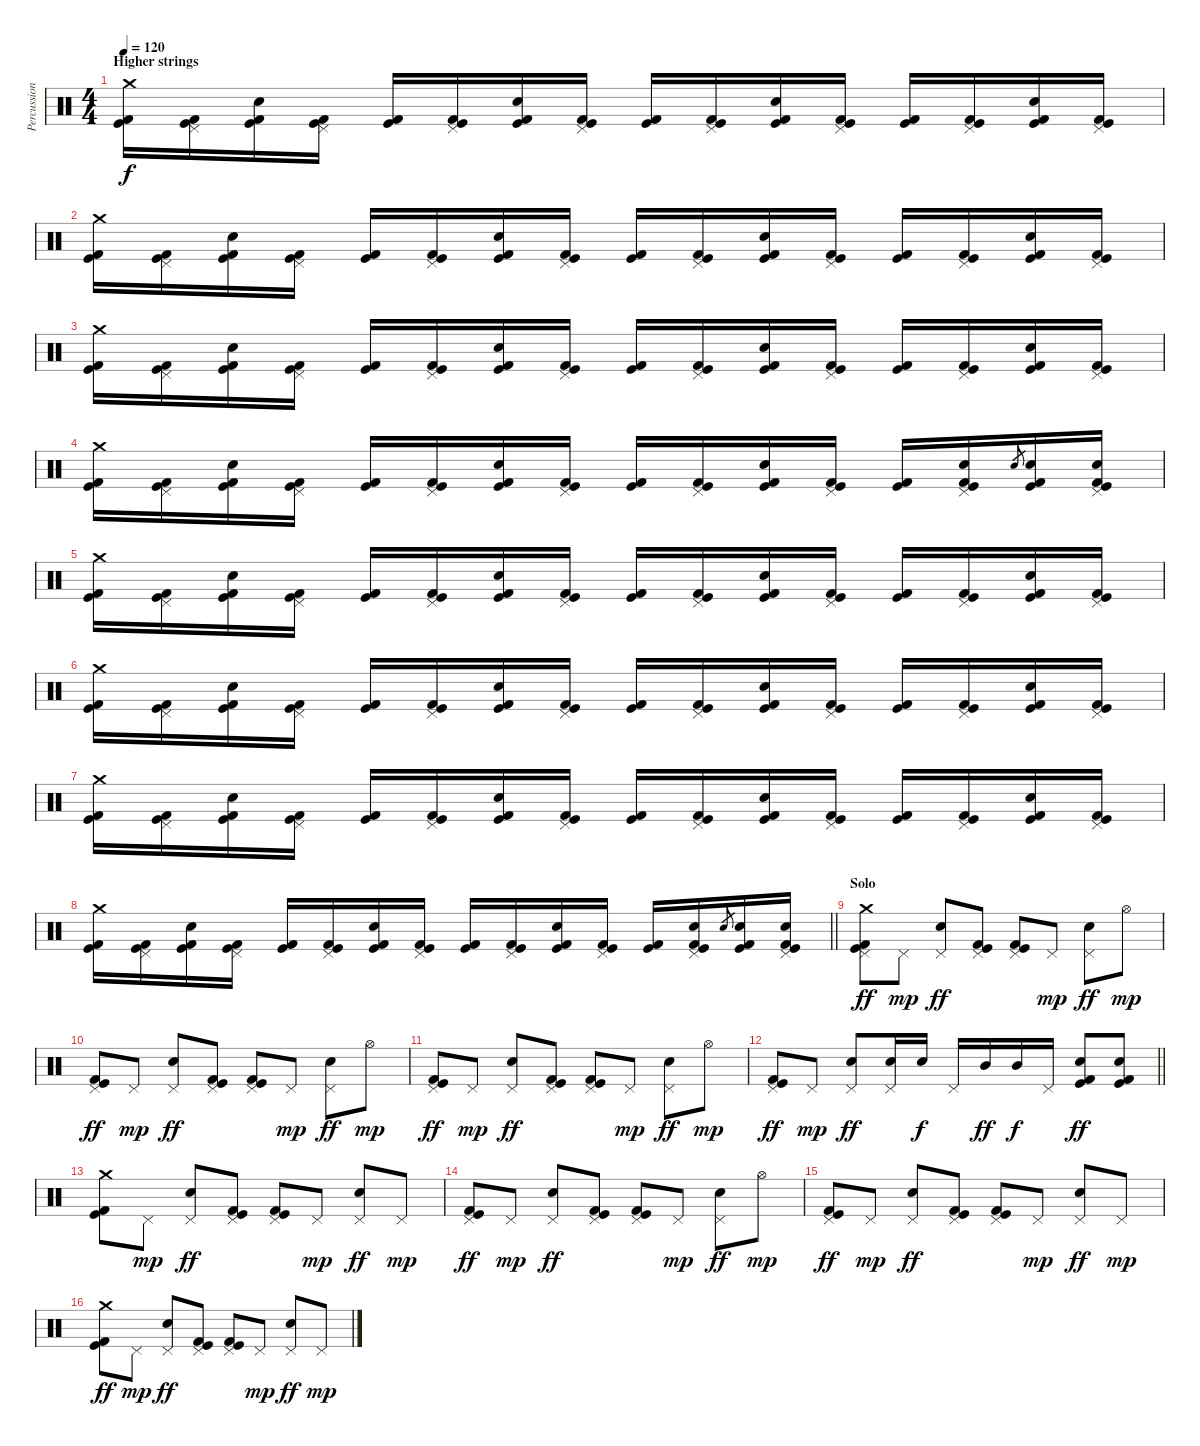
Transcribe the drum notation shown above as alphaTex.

\track ("Percussion" "Percussion") {instrument percussion}
\staff {score}
\articulation defaults
\ts (4 4)
\section ("" "Higher strings")
\tempo 120
\clef neutral
\ks c
("Crash medium (hit)" "Kick (hit)" "Kick (hit) 2").16{dy f} ("Pedal Hi-Hat (hit)" "Kick (hit)" "Kick (hit) 2").16 ("Electric Snare (hit)" "Kick (hit)" "Kick (hit) 2").16 ("Pedal Hi-Hat (hit)" "Kick (hit)" "Kick (hit) 2").16 ("Kick (hit)" "Kick (hit) 2").16 ("Pedal Hi-Hat (hit)" "Kick (hit)" "Kick (hit) 2").16 ("Electric Snare (hit)" "Kick (hit)" "Kick (hit) 2").16 ("Pedal Hi-Hat (hit)" "Kick (hit)" "Kick (hit) 2").16 ("Kick (hit)" "Kick (hit) 2").16 ("Pedal Hi-Hat (hit)" "Kick (hit)" "Kick (hit) 2").16 ("Electric Snare (hit)" "Kick (hit)" "Kick (hit) 2").16 ("Pedal Hi-Hat (hit)" "Kick (hit)" "Kick (hit) 2").16 ("Kick (hit)" "Kick (hit) 2").16 ("Pedal Hi-Hat (hit)" "Kick (hit)" "Kick (hit) 2").16 ("Electric Snare (hit)" "Kick (hit)" "Kick (hit) 2").16 ("Pedal Hi-Hat (hit)" "Kick (hit)" "Kick (hit) 2").16 |
("Crash medium (hit)" "Kick (hit)" "Kick (hit) 2").16 ("Pedal Hi-Hat (hit)" "Kick (hit)" "Kick (hit) 2").16 ("Electric Snare (hit)" "Kick (hit)" "Kick (hit) 2").16 ("Pedal Hi-Hat (hit)" "Kick (hit)" "Kick (hit) 2").16 ("Kick (hit)" "Kick (hit) 2").16 ("Pedal Hi-Hat (hit)" "Kick (hit)" "Kick (hit) 2").16 ("Electric Snare (hit)" "Kick (hit)" "Kick (hit) 2").16 ("Pedal Hi-Hat (hit)" "Kick (hit)" "Kick (hit) 2").16 ("Kick (hit)" "Kick (hit) 2").16 ("Pedal Hi-Hat (hit)" "Kick (hit)" "Kick (hit) 2").16 ("Electric Snare (hit)" "Kick (hit)" "Kick (hit) 2").16 ("Pedal Hi-Hat (hit)" "Kick (hit)" "Kick (hit) 2").16 ("Kick (hit)" "Kick (hit) 2").16 ("Pedal Hi-Hat (hit)" "Kick (hit)" "Kick (hit) 2").16 ("Electric Snare (hit)" "Kick (hit)" "Kick (hit) 2").16 ("Pedal Hi-Hat (hit)" "Kick (hit)" "Kick (hit) 2").16 |
("Crash medium (hit)" "Kick (hit)" "Kick (hit) 2").16 ("Pedal Hi-Hat (hit)" "Kick (hit)" "Kick (hit) 2").16 ("Electric Snare (hit)" "Kick (hit)" "Kick (hit) 2").16 ("Pedal Hi-Hat (hit)" "Kick (hit)" "Kick (hit) 2").16 ("Kick (hit)" "Kick (hit) 2").16 ("Pedal Hi-Hat (hit)" "Kick (hit)" "Kick (hit) 2").16 ("Electric Snare (hit)" "Kick (hit)" "Kick (hit) 2").16 ("Pedal Hi-Hat (hit)" "Kick (hit)" "Kick (hit) 2").16 ("Kick (hit)" "Kick (hit) 2").16 ("Pedal Hi-Hat (hit)" "Kick (hit)" "Kick (hit) 2").16 ("Electric Snare (hit)" "Kick (hit)" "Kick (hit) 2").16 ("Pedal Hi-Hat (hit)" "Kick (hit)" "Kick (hit) 2").16 ("Kick (hit)" "Kick (hit) 2").16 ("Pedal Hi-Hat (hit)" "Kick (hit)" "Kick (hit) 2").16 ("Electric Snare (hit)" "Kick (hit)" "Kick (hit) 2").16 ("Pedal Hi-Hat (hit)" "Kick (hit)" "Kick (hit) 2").16 |
("Crash medium (hit)" "Kick (hit)" "Kick (hit) 2").16 ("Pedal Hi-Hat (hit)" "Kick (hit)" "Kick (hit) 2").16 ("Electric Snare (hit)" "Kick (hit)" "Kick (hit) 2").16 ("Pedal Hi-Hat (hit)" "Kick (hit)" "Kick (hit) 2").16 ("Kick (hit)" "Kick (hit) 2").16 ("Pedal Hi-Hat (hit)" "Kick (hit)" "Kick (hit) 2").16 ("Electric Snare (hit)" "Kick (hit)" "Kick (hit) 2").16 ("Pedal Hi-Hat (hit)" "Kick (hit)" "Kick (hit) 2").16 ("Kick (hit)" "Kick (hit) 2").16 ("Pedal Hi-Hat (hit)" "Kick (hit)" "Kick (hit) 2").16 ("Electric Snare (hit)" "Kick (hit)" "Kick (hit) 2").16 ("Pedal Hi-Hat (hit)" "Kick (hit)" "Kick (hit) 2").16 ("Kick (hit)" "Kick (hit) 2").16 ("Pedal Hi-Hat (hit)" "Electric Snare (hit)" "Kick (hit)" "Kick (hit) 2").16 "Electric Snare (hit)".8{gr} ("Electric Snare (hit)" "Kick (hit)" "Kick (hit) 2").16 ("Pedal Hi-Hat (hit)" "Electric Snare (hit)" "Kick (hit)" "Kick (hit) 2").16 |
("Crash medium (hit)" "Kick (hit)" "Kick (hit) 2").16 ("Pedal Hi-Hat (hit)" "Kick (hit)" "Kick (hit) 2").16 ("Electric Snare (hit)" "Kick (hit)" "Kick (hit) 2").16 ("Pedal Hi-Hat (hit)" "Kick (hit)" "Kick (hit) 2").16 ("Kick (hit)" "Kick (hit) 2").16 ("Pedal Hi-Hat (hit)" "Kick (hit)" "Kick (hit) 2").16 ("Electric Snare (hit)" "Kick (hit)" "Kick (hit) 2").16 ("Pedal Hi-Hat (hit)" "Kick (hit)" "Kick (hit) 2").16 ("Kick (hit)" "Kick (hit) 2").16 ("Pedal Hi-Hat (hit)" "Kick (hit)" "Kick (hit) 2").16 ("Electric Snare (hit)" "Kick (hit)" "Kick (hit) 2").16 ("Pedal Hi-Hat (hit)" "Kick (hit)" "Kick (hit) 2").16 ("Kick (hit)" "Kick (hit) 2").16 ("Pedal Hi-Hat (hit)" "Kick (hit)" "Kick (hit) 2").16 ("Electric Snare (hit)" "Kick (hit)" "Kick (hit) 2").16 ("Pedal Hi-Hat (hit)" "Kick (hit)" "Kick (hit) 2").16 |
("Crash medium (hit)" "Kick (hit)" "Kick (hit) 2").16 ("Pedal Hi-Hat (hit)" "Kick (hit)" "Kick (hit) 2").16 ("Electric Snare (hit)" "Kick (hit)" "Kick (hit) 2").16 ("Pedal Hi-Hat (hit)" "Kick (hit)" "Kick (hit) 2").16 ("Kick (hit)" "Kick (hit) 2").16 ("Pedal Hi-Hat (hit)" "Kick (hit)" "Kick (hit) 2").16 ("Electric Snare (hit)" "Kick (hit)" "Kick (hit) 2").16 ("Pedal Hi-Hat (hit)" "Kick (hit)" "Kick (hit) 2").16 ("Kick (hit)" "Kick (hit) 2").16 ("Pedal Hi-Hat (hit)" "Kick (hit)" "Kick (hit) 2").16 ("Electric Snare (hit)" "Kick (hit)" "Kick (hit) 2").16 ("Pedal Hi-Hat (hit)" "Kick (hit)" "Kick (hit) 2").16 ("Kick (hit)" "Kick (hit) 2").16 ("Pedal Hi-Hat (hit)" "Kick (hit)" "Kick (hit) 2").16 ("Electric Snare (hit)" "Kick (hit)" "Kick (hit) 2").16 ("Pedal Hi-Hat (hit)" "Kick (hit)" "Kick (hit) 2").16 |
("Crash medium (hit)" "Kick (hit)" "Kick (hit) 2").16 ("Pedal Hi-Hat (hit)" "Kick (hit)" "Kick (hit) 2").16 ("Electric Snare (hit)" "Kick (hit)" "Kick (hit) 2").16 ("Pedal Hi-Hat (hit)" "Kick (hit)" "Kick (hit) 2").16 ("Kick (hit)" "Kick (hit) 2").16 ("Pedal Hi-Hat (hit)" "Kick (hit)" "Kick (hit) 2").16 ("Electric Snare (hit)" "Kick (hit)" "Kick (hit) 2").16 ("Pedal Hi-Hat (hit)" "Kick (hit)" "Kick (hit) 2").16 ("Kick (hit)" "Kick (hit) 2").16 ("Pedal Hi-Hat (hit)" "Kick (hit)" "Kick (hit) 2").16 ("Electric Snare (hit)" "Kick (hit)" "Kick (hit) 2").16 ("Pedal Hi-Hat (hit)" "Kick (hit)" "Kick (hit) 2").16 ("Kick (hit)" "Kick (hit) 2").16 ("Pedal Hi-Hat (hit)" "Kick (hit)" "Kick (hit) 2").16 ("Electric Snare (hit)" "Kick (hit)" "Kick (hit) 2").16 ("Pedal Hi-Hat (hit)" "Kick (hit)" "Kick (hit) 2").16 |
\barLineRight lightlight
("Crash medium (hit)" "Kick (hit)" "Kick (hit) 2").16 ("Pedal Hi-Hat (hit)" "Kick (hit)" "Kick (hit) 2").16 ("Electric Snare (hit)" "Kick (hit)" "Kick (hit) 2").16 ("Pedal Hi-Hat (hit)" "Kick (hit)" "Kick (hit) 2").16 ("Kick (hit)" "Kick (hit) 2").16 ("Pedal Hi-Hat (hit)" "Kick (hit)" "Kick (hit) 2").16 ("Electric Snare (hit)" "Kick (hit)" "Kick (hit) 2").16 ("Pedal Hi-Hat (hit)" "Kick (hit)" "Kick (hit) 2").16 ("Kick (hit)" "Kick (hit) 2").16 ("Pedal Hi-Hat (hit)" "Kick (hit)" "Kick (hit) 2").16 ("Electric Snare (hit)" "Kick (hit)" "Kick (hit) 2").16 ("Pedal Hi-Hat (hit)" "Kick (hit)" "Kick (hit) 2").16 ("Kick (hit)" "Kick (hit) 2").16 ("Pedal Hi-Hat (hit)" "Electric Snare (hit)" "Kick (hit)" "Kick (hit) 2").16 "Electric Snare (hit)".8{gr} ("Electric Snare (hit)" "Kick (hit)" "Kick (hit) 2").16 ("Pedal Hi-Hat (hit)" "Electric Snare (hit)" "Kick (hit)" "Kick (hit) 2").16 |
\section ("" "Solo")
("Crash medium (hit)" "Pedal Hi-Hat (hit)" "Kick (hit) 2" "Kick (hit)").8{dy ff} "Pedal Hi-Hat (hit)".8{dy mp} ("Pedal Hi-Hat (hit)" "Electric Snare (hit)").8{dy ff} ("Pedal Hi-Hat (hit)" "Kick (hit) 2" "Kick (hit)").8 ("Pedal Hi-Hat (hit)" "Kick (hit) 2" "Kick (hit)").8 "Pedal Hi-Hat (hit)".8{dy mp} ("Pedal Hi-Hat (hit)" "Electric Snare (hit)").8{dy ff} "Hi-Hat (open)".8{dy mp} |
("Pedal Hi-Hat (hit)" "Kick (hit) 2" "Kick (hit)").8{dy ff} "Pedal Hi-Hat (hit)".8{dy mp} ("Pedal Hi-Hat (hit)" "Electric Snare (hit)").8{dy ff} ("Pedal Hi-Hat (hit)" "Kick (hit) 2" "Kick (hit)").8 ("Pedal Hi-Hat (hit)" "Kick (hit) 2" "Kick (hit)").8 "Pedal Hi-Hat (hit)".8{dy mp} ("Pedal Hi-Hat (hit)" "Electric Snare (hit)").8{dy ff} "Hi-Hat (open)".8{dy mp} |
("Pedal Hi-Hat (hit)" "Kick (hit) 2" "Kick (hit)").8{dy ff} "Pedal Hi-Hat (hit)".8{dy mp} ("Pedal Hi-Hat (hit)" "Electric Snare (hit)").8{dy ff} ("Pedal Hi-Hat (hit)" "Kick (hit) 2" "Kick (hit)").8 ("Pedal Hi-Hat (hit)" "Kick (hit) 2" "Kick (hit)").8 "Pedal Hi-Hat (hit)".8{dy mp} ("Pedal Hi-Hat (hit)" "Electric Snare (hit)").8{dy ff} "Hi-Hat (open)".8{dy mp} |
\barLineRight lightlight
("Pedal Hi-Hat (hit)" "Kick (hit) 2" "Kick (hit)").8{dy ff} "Pedal Hi-Hat (hit)".8{dy mp} ("Pedal Hi-Hat (hit)" "Electric Snare (hit)").8{dy ff} ("Pedal Hi-Hat (hit)" "Electric Snare (hit)").16 "Snare (hit) 2".16{dy f} "Pedal Hi-Hat (hit)".16 "Mid Tom (hit)".16{dy ff} "Mid Tom (hit)".16{dy f} "Pedal Hi-Hat (hit)".16 ("Electric Snare (hit)" "Kick (hit)" "Kick (hit) 2").8{dy ff} ("Electric Snare (hit)" "Kick (hit)" "Kick (hit) 2").8 |
("Crash medium (hit)" "Kick (hit) 2" "Kick (hit)").8 "Pedal Hi-Hat (hit)".8{dy mp} ("Pedal Hi-Hat (hit)" "Electric Snare (hit)").8{dy ff} ("Pedal Hi-Hat (hit)" "Kick (hit) 2" "Kick (hit)").8 ("Pedal Hi-Hat (hit)" "Kick (hit) 2" "Kick (hit)").8 "Pedal Hi-Hat (hit)".8{dy mp} ("Pedal Hi-Hat (hit)" "Electric Snare (hit)").8{dy ff} "Pedal Hi-Hat (hit)".8{dy mp} |
("Pedal Hi-Hat (hit)" "Kick (hit) 2" "Kick (hit)").8{dy ff} "Pedal Hi-Hat (hit)".8{dy mp} ("Pedal Hi-Hat (hit)" "Electric Snare (hit)").8{dy ff} ("Pedal Hi-Hat (hit)" "Kick (hit) 2" "Kick (hit)").8 ("Pedal Hi-Hat (hit)" "Kick (hit) 2" "Kick (hit)").8 "Pedal Hi-Hat (hit)".8{dy mp} ("Pedal Hi-Hat (hit)" "Electric Snare (hit)").8{dy ff} "Hi-Hat (open)".8{dy mp} |
("Pedal Hi-Hat (hit)" "Kick (hit) 2" "Kick (hit)").8{dy ff} "Pedal Hi-Hat (hit)".8{dy mp} ("Pedal Hi-Hat (hit)" "Electric Snare (hit)").8{dy ff} ("Pedal Hi-Hat (hit)" "Kick (hit) 2" "Kick (hit)").8 ("Pedal Hi-Hat (hit)" "Kick (hit) 2" "Kick (hit)").8 "Pedal Hi-Hat (hit)".8{dy mp} ("Pedal Hi-Hat (hit)" "Electric Snare (hit)").8{dy ff} "Pedal Hi-Hat (hit)".8{dy mp} |
("Crash medium (hit)" "Kick (hit) 2" "Kick (hit)").8{dy ff} "Pedal Hi-Hat (hit)".8{dy mp} ("Pedal Hi-Hat (hit)" "Electric Snare (hit)").8{dy ff} ("Pedal Hi-Hat (hit)" "Kick (hit) 2" "Kick (hit)").8 ("Pedal Hi-Hat (hit)" "Kick (hit) 2" "Kick (hit)").8 "Pedal Hi-Hat (hit)".8{dy mp} ("Pedal Hi-Hat (hit)" "Electric Snare (hit)").8{dy ff} "Pedal Hi-Hat (hit)".8{dy mp}
